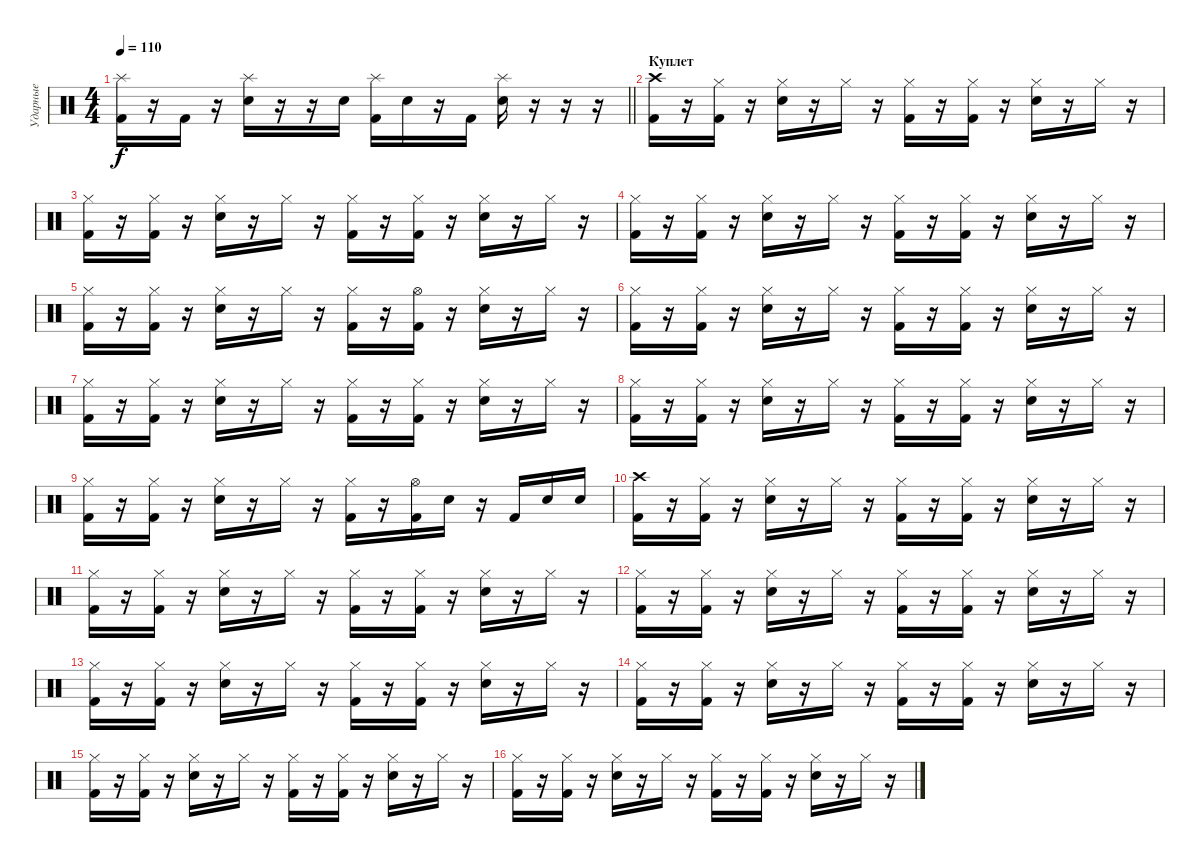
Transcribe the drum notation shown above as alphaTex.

\track ("Ударные" "Ударные") {instrument percussion}
\staff {score}
\articulation defaults
\ts (4 4)
\tempo 110
\clef neutral
\barLineRight lightlight
\ks c
("Splash (hit)" "Kick (hit) 2").16{dy f} r.16 "Kick (hit) 2".16 r.16 ("Splash (hit)" "Electric Snare (hit)").16 r.16 r.16 "Electric Snare (hit)".16 ("Splash (hit)" "Kick (hit) 2").16 "Electric Snare (hit)".16 r.16 "Kick (hit) 2".16 ("Splash (hit)" "Electric Snare (hit)").16 r.16 r.16 r.16 |
\section ("" "Куплет")
("Crash high (hit)" "Kick (hit) 2").16 r.16 ("Hi-Hat (closed)" "Kick (hit) 2").16 r.16 ("Hi-Hat (closed)" "Electric Snare (hit)").16 r.16 "Hi-Hat (closed)".16 r.16 ("Hi-Hat (closed)" "Kick (hit) 2").16 r.16 ("Hi-Hat (closed)" "Kick (hit) 2").16 r.16 ("Hi-Hat (closed)" "Electric Snare (hit)").16 r.16 "Hi-Hat (closed)".16 r.16 |
("Hi-Hat (closed)" "Kick (hit) 2").16 r.16 ("Hi-Hat (closed)" "Kick (hit) 2").16 r.16 ("Hi-Hat (closed)" "Electric Snare (hit)").16 r.16 "Hi-Hat (closed)".16 r.16 ("Hi-Hat (closed)" "Kick (hit) 2").16 r.16 ("Hi-Hat (closed)" "Kick (hit) 2").16 r.16 ("Hi-Hat (closed)" "Electric Snare (hit)").16 r.16 "Hi-Hat (closed)".16 r.16 |
("Hi-Hat (closed)" "Kick (hit) 2").16 r.16 ("Hi-Hat (closed)" "Kick (hit) 2").16 r.16 ("Hi-Hat (closed)" "Electric Snare (hit)").16 r.16 "Hi-Hat (closed)".16 r.16 ("Hi-Hat (closed)" "Kick (hit) 2").16 r.16 ("Hi-Hat (closed)" "Kick (hit) 2").16 r.16 ("Hi-Hat (closed)" "Electric Snare (hit)").16 r.16 "Hi-Hat (closed)".16 r.16 |
("Hi-Hat (closed)" "Kick (hit) 2").16 r.16 ("Hi-Hat (closed)" "Kick (hit) 2").16 r.16 ("Hi-Hat (closed)" "Electric Snare (hit)").16 r.16 "Hi-Hat (closed)".16 r.16 ("Hi-Hat (closed)" "Kick (hit) 2").16 r.16 ("Hi-Hat (open)" "Kick (hit) 2").16 r.16 ("Hi-Hat (closed)" "Electric Snare (hit)").16 r.16 "Hi-Hat (closed)".16 r.16 |
("Hi-Hat (closed)" "Kick (hit) 2").16 r.16 ("Hi-Hat (closed)" "Kick (hit) 2").16 r.16 ("Hi-Hat (closed)" "Electric Snare (hit)").16 r.16 "Hi-Hat (closed)".16 r.16 ("Hi-Hat (closed)" "Kick (hit) 2").16 r.16 ("Hi-Hat (closed)" "Kick (hit) 2").16 r.16 ("Hi-Hat (closed)" "Electric Snare (hit)").16 r.16 "Hi-Hat (closed)".16 r.16 |
("Hi-Hat (closed)" "Kick (hit) 2").16 r.16 ("Hi-Hat (closed)" "Kick (hit) 2").16 r.16 ("Hi-Hat (closed)" "Electric Snare (hit)").16 r.16 "Hi-Hat (closed)".16 r.16 ("Hi-Hat (closed)" "Kick (hit) 2").16 r.16 ("Hi-Hat (closed)" "Kick (hit) 2").16 r.16 ("Hi-Hat (closed)" "Electric Snare (hit)").16 r.16 "Hi-Hat (closed)".16 r.16 |
("Hi-Hat (closed)" "Kick (hit) 2").16 r.16 ("Hi-Hat (closed)" "Kick (hit) 2").16 r.16 ("Hi-Hat (closed)" "Electric Snare (hit)").16 r.16 "Hi-Hat (closed)".16 r.16 ("Hi-Hat (closed)" "Kick (hit) 2").16 r.16 ("Hi-Hat (closed)" "Kick (hit) 2").16 r.16 ("Hi-Hat (closed)" "Electric Snare (hit)").16 r.16 "Hi-Hat (closed)".16 r.16 |
("Hi-Hat (closed)" "Kick (hit) 2").16 r.16 ("Hi-Hat (closed)" "Kick (hit) 2").16 r.16 ("Hi-Hat (closed)" "Electric Snare (hit)").16 r.16 "Hi-Hat (closed)".16 r.16 ("Hi-Hat (closed)" "Kick (hit) 2").16 r.16 ("Hi-Hat (open)" "Kick (hit) 2").16 "Electric Snare (hit)".16 r.16 "Kick (hit) 2".16 "Electric Snare (hit)".16 "Electric Snare (hit)".16 |
("Crash high (hit)" "Kick (hit) 2").16 r.16 ("Hi-Hat (closed)" "Kick (hit) 2").16 r.16 ("Hi-Hat (closed)" "Electric Snare (hit)").16 r.16 "Hi-Hat (closed)".16 r.16 ("Hi-Hat (closed)" "Kick (hit) 2").16 r.16 ("Hi-Hat (closed)" "Kick (hit) 2").16 r.16 ("Hi-Hat (closed)" "Electric Snare (hit)").16 r.16 "Hi-Hat (closed)".16 r.16 |
("Hi-Hat (closed)" "Kick (hit) 2").16 r.16 ("Hi-Hat (closed)" "Kick (hit) 2").16 r.16 ("Hi-Hat (closed)" "Electric Snare (hit)").16 r.16 "Hi-Hat (closed)".16 r.16 ("Hi-Hat (closed)" "Kick (hit) 2").16 r.16 ("Hi-Hat (closed)" "Kick (hit) 2").16 r.16 ("Hi-Hat (closed)" "Electric Snare (hit)").16 r.16 "Hi-Hat (closed)".16 r.16 |
("Hi-Hat (closed)" "Kick (hit) 2").16 r.16 ("Hi-Hat (closed)" "Kick (hit) 2").16 r.16 ("Hi-Hat (closed)" "Electric Snare (hit)").16 r.16 "Hi-Hat (closed)".16 r.16 ("Hi-Hat (closed)" "Kick (hit) 2").16 r.16 ("Hi-Hat (closed)" "Kick (hit) 2").16 r.16 ("Hi-Hat (closed)" "Electric Snare (hit)").16 r.16 "Hi-Hat (closed)".16 r.16 |
("Hi-Hat (closed)" "Kick (hit) 2").16 r.16 ("Hi-Hat (closed)" "Kick (hit) 2").16 r.16 ("Hi-Hat (closed)" "Electric Snare (hit)").16 r.16 "Hi-Hat (closed)".16 r.16 ("Hi-Hat (closed)" "Kick (hit) 2").16 r.16 ("Hi-Hat (closed)" "Kick (hit) 2").16 r.16 ("Hi-Hat (closed)" "Electric Snare (hit)").16 r.16 "Hi-Hat (closed)".16 r.16 |
("Hi-Hat (closed)" "Kick (hit) 2").16 r.16 ("Hi-Hat (closed)" "Kick (hit) 2").16 r.16 ("Hi-Hat (closed)" "Electric Snare (hit)").16 r.16 "Hi-Hat (closed)".16 r.16 ("Hi-Hat (closed)" "Kick (hit) 2").16 r.16 ("Hi-Hat (closed)" "Kick (hit) 2").16 r.16 ("Hi-Hat (closed)" "Electric Snare (hit)").16 r.16 "Hi-Hat (closed)".16 r.16 |
("Hi-Hat (closed)" "Kick (hit) 2").16 r.16 ("Hi-Hat (closed)" "Kick (hit) 2").16 r.16 ("Hi-Hat (closed)" "Electric Snare (hit)").16 r.16 "Hi-Hat (closed)".16 r.16 ("Hi-Hat (closed)" "Kick (hit) 2").16 r.16 ("Hi-Hat (closed)" "Kick (hit) 2").16 r.16 ("Hi-Hat (closed)" "Electric Snare (hit)").16 r.16 "Hi-Hat (closed)".16 r.16 |
("Hi-Hat (closed)" "Kick (hit) 2").16 r.16 ("Hi-Hat (closed)" "Kick (hit) 2").16 r.16 ("Hi-Hat (closed)" "Electric Snare (hit)").16 r.16 "Hi-Hat (closed)".16 r.16 ("Hi-Hat (closed)" "Kick (hit) 2").16 r.16 ("Hi-Hat (closed)" "Kick (hit) 2").16 r.16 ("Hi-Hat (closed)" "Electric Snare (hit)").16 r.16 "Hi-Hat (closed)".16 r.16
